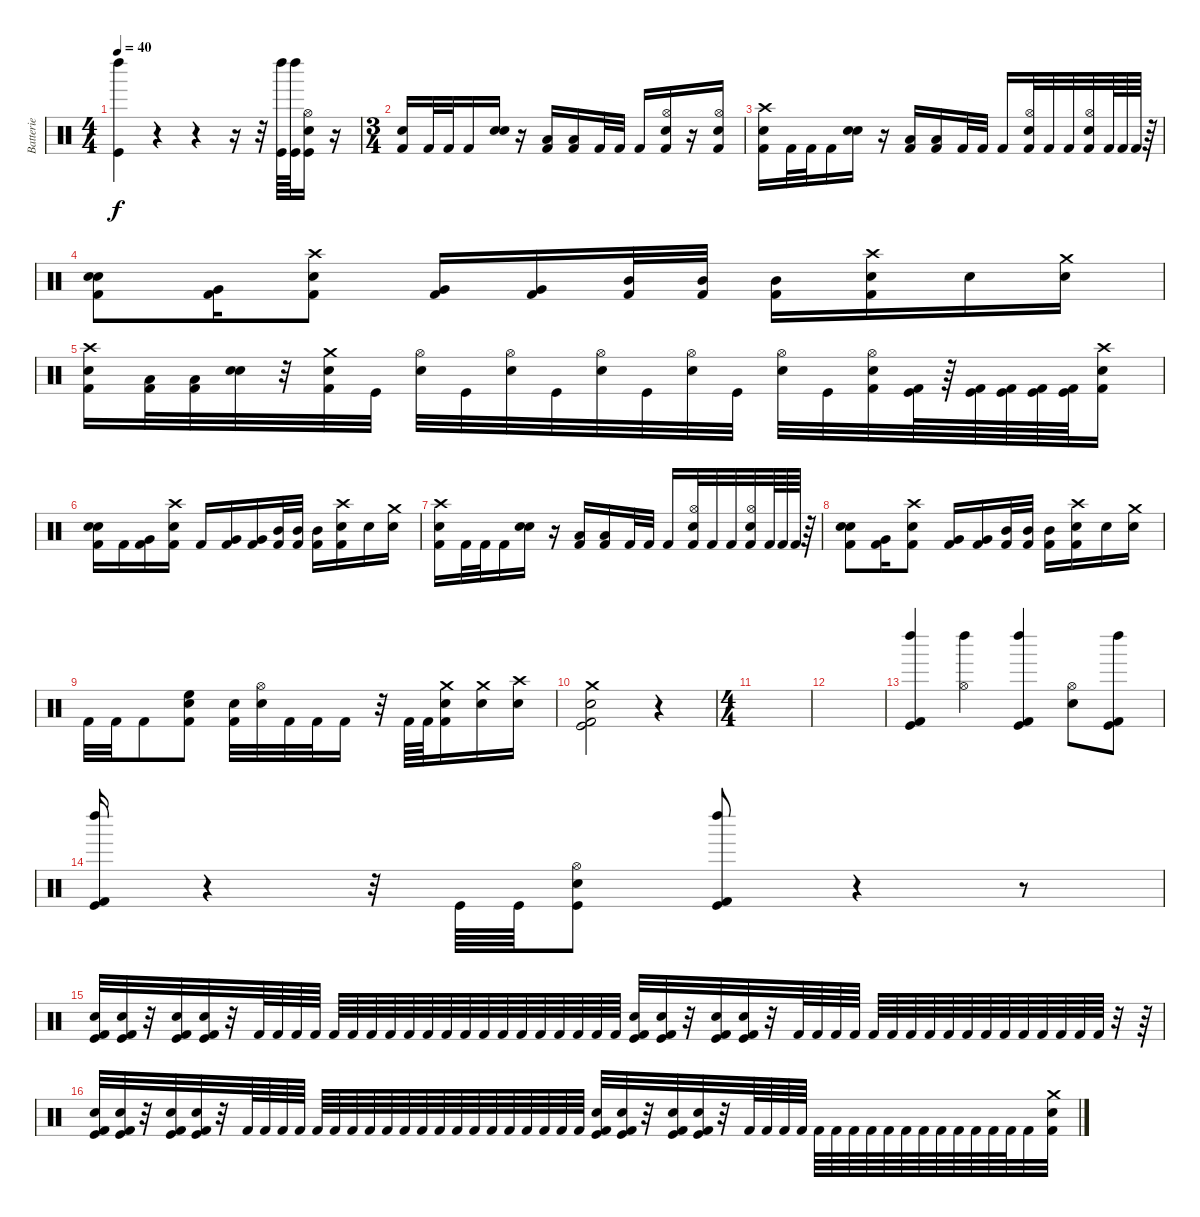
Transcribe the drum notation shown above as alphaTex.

\track ("Batterie" "Batterie") {instrument percussion}
\staff {score}
\articulation defaults
\ts (4 4)
\tempo 40
\clef neutral
\ks c
("Kick (hit)" "Left Maraca (hit)").4{dy f} r.4 r.4 r.16 r.32 ("Kick (hit)" "Left Maraca (hit)").64 ("Kick (hit)" "Left Maraca (hit)").64 ("Kick (hit)" "Electric Snare (hit)" "Hi-Hat (open)").16 r.16 |
\ts (3 4)
("Kick (hit) 2" "Electric Snare (hit)").16 "Kick (hit) 2".32 "Kick (hit) 2".32 "Kick (hit) 2".16 ("Snare (hit) 2" "Electric Snare (hit)").16 r.16 ("Kick (hit) 2" "Low Floor Tom (hit)").16 ("Kick (hit) 2" "Low Floor Tom (hit)").16 "Kick (hit) 2".32 "Kick (hit) 2".32 "Kick (hit) 2".16 ("Kick (hit) 2" "Electric Snare (hit)" "Hi-Hat (open)").16 r.16 ("Kick (hit) 2" "Electric Snare (hit)" "Hi-Hat (open)").16 |
("Kick (hit) 2" "Electric Snare (hit)" "Crash high (hit)").16 "Kick (hit) 2".32 "Kick (hit) 2".32 "Kick (hit) 2".16 ("Snare (hit) 2" "Electric Snare (hit)").16 r.16 ("Kick (hit) 2" "Low Floor Tom (hit)").16 ("Kick (hit) 2" "Low Floor Tom (hit)").16 "Kick (hit) 2".32 "Kick (hit) 2".32 "Kick (hit) 2".16 ("Kick (hit) 2" "Electric Snare (hit)" "Hi-Hat (open)").32 "Kick (hit) 2".32 "Kick (hit) 2".32 ("Kick (hit) 2" "Electric Snare (hit)" "Hi-Hat (open)").32 "Kick (hit) 2".64 "Kick (hit) 2".64 "Kick (hit) 2".64 r.64 |
("Kick (hit) 2" "Snare (hit) 2" "Electric Snare (hit)").8 ("Kick (hit) 2" "Very Low Tom (hit)").16 ("Kick (hit) 2" "Electric Snare (hit)" "Crash high (hit)").8 ("Kick (hit) 2" "Very Low Tom (hit)").16 ("Kick (hit) 2" "Very Low Tom (hit)").16 ("Kick (hit) 2" "Mid Tom (hit)").32 ("Kick (hit) 2" "Mid Tom (hit)").32 ("Kick (hit) 2" "Mid Tom (hit)").16 ("Kick (hit) 2" "Electric Snare (hit)" "Crash high (hit)").16 "Electric Snare (hit)".16 ("Electric Snare (hit)" "Crash medium (hit)").16 |
("Kick (hit) 2" "Electric Snare (hit)" "Crash high (hit)").16 ("Kick (hit) 2" "Low Floor Tom (hit)").32 ("Kick (hit) 2" "Low Floor Tom (hit)").32 ("Electric Snare (hit)" "Electric Snare (hit)").32 r.32 ("Kick (hit) 2" "Electric Snare (hit)" "Crash medium (hit)").32 "Kick (hit)".32 ("Electric Snare (hit)" "Hi-Hat (open)").32 "Kick (hit)".32 ("Electric Snare (hit)" "Hi-Hat (open)").32 "Kick (hit)".32 ("Electric Snare (hit)" "Hi-Hat (open)").32 "Kick (hit)".32 ("Electric Snare (hit)" "Hi-Hat (open)").32 "Kick (hit)".32 ("Electric Snare (hit)" "Hi-Hat (open)").32 "Kick (hit)".32 ("Kick (hit) 2" "Electric Snare (hit)" "Hi-Hat (open)").32 ("Kick (hit) 2" "Kick (hit)").64 r.64 ("Kick (hit) 2" "Kick (hit)").64 ("Kick (hit) 2" "Kick (hit)").64 ("Kick (hit) 2" "Kick (hit)").64 ("Kick (hit) 2" "Kick (hit)").64 ("Kick (hit) 2" "Electric Snare (hit)" "Crash high (hit)").16 |
("Kick (hit) 2" "Snare (hit) 2" "Electric Snare (hit)").16 "Kick (hit) 2".16 ("Kick (hit) 2" "Very Low Tom (hit)").16 ("Kick (hit) 2" "Electric Snare (hit)" "Crash high (hit)").16 "Kick (hit) 2".16 ("Kick (hit) 2" "Very Low Tom (hit)").16 ("Kick (hit) 2" "Very Low Tom (hit)").16 ("Kick (hit) 2" "Mid Tom (hit)").32 ("Kick (hit) 2" "Mid Tom (hit)").32 ("Kick (hit) 2" "Mid Tom (hit)").16 ("Kick (hit) 2" "Electric Snare (hit)" "Crash high (hit)").16 "Electric Snare (hit)".16 ("Electric Snare (hit)" "Crash medium (hit)").16 |
("Kick (hit) 2" "Electric Snare (hit)" "Crash high (hit)").16 "Kick (hit) 2".32 "Kick (hit) 2".32 "Kick (hit) 2".16 ("Snare (hit) 2" "Electric Snare (hit)").16 r.16 ("Kick (hit) 2" "Low Floor Tom (hit)").16 ("Kick (hit) 2" "Low Floor Tom (hit)").16 "Kick (hit) 2".32 "Kick (hit) 2".32 "Kick (hit) 2".16 ("Kick (hit) 2" "Electric Snare (hit)" "Hi-Hat (open)").32 "Kick (hit) 2".32 "Kick (hit) 2".32 ("Kick (hit) 2" "Electric Snare (hit)" "Hi-Hat (open)").32 "Kick (hit) 2".64 "Kick (hit) 2".64 "Kick (hit) 2".64 r.64 |
("Kick (hit) 2" "Snare (hit) 2" "Electric Snare (hit)").8 ("Kick (hit) 2" "Very Low Tom (hit)").16 ("Kick (hit) 2" "Electric Snare (hit)" "Crash high (hit)").8 ("Kick (hit) 2" "Very Low Tom (hit)").16 ("Kick (hit) 2" "Very Low Tom (hit)").16 ("Kick (hit) 2" "Mid Tom (hit)").32 ("Kick (hit) 2" "Mid Tom (hit)").32 ("Kick (hit) 2" "Mid Tom (hit)").16 ("Kick (hit) 2" "Electric Snare (hit)" "Crash high (hit)").16 "Electric Snare (hit)".16 ("Electric Snare (hit)" "Crash medium (hit)").16 |
"Kick (hit) 2".32 "Kick (hit) 2".32 "Kick (hit) 2".8 ("Kick (hit) 2" "High Floor Tom (hit)" "Electric Snare (hit)").8 ("Kick (hit) 2" "Electric Snare (hit)").32 ("Hi-Hat (open)" "Electric Snare (hit)").32 "Kick (hit) 2".32 "Kick (hit) 2".32 "Kick (hit) 2".16 r.32 "Kick (hit) 2".64 "Kick (hit) 2".64 ("Kick (hit) 2" "Electric Snare (hit)" "Crash medium (hit)").16 ("Electric Snare (hit)" "Crash medium (hit)").16 ("Electric Snare (hit)" "Crash high (hit)").16 |
("Kick (hit)" "Kick (hit) 2" "Electric Snare (hit)" "Crash medium (hit)").2 r.4 |
\ts (4 4)
|
|
("Kick (hit)" "Kick (hit) 2" "Left Maraca (hit)").4 ("Hi-Hat (open)" "Left Maraca (hit)").4 ("Kick (hit)" "Kick (hit) 2" "Left Maraca (hit)").4 ("Electric Snare (hit)" "Hi-Hat (open)").8 ("Kick (hit)" "Kick (hit) 2" "Left Maraca (hit)").8 |
("Kick (hit)" "Kick (hit) 2" "Left Maraca (hit)").16 r.4 r.32 "Kick (hit)".64 "Kick (hit)".64 ("Kick (hit)" "Electric Snare (hit)" "Hi-Hat (open)").8 ("Kick (hit)" "Kick (hit) 2" "Left Maraca (hit)").8 r.4 r.8 |
("Kick (hit)" "Kick (hit) 2" "Electric Snare (hit)").32 ("Kick (hit)" "Kick (hit) 2" "Electric Snare (hit)").32 r.32 ("Kick (hit)" "Kick (hit) 2" "Electric Snare (hit)").32 ("Kick (hit)" "Kick (hit) 2" "Electric Snare (hit)").32 r.32 "Kick (hit) 2".64 "Kick (hit) 2".64 "Kick (hit) 2".64 "Kick (hit) 2".64 "Kick (hit) 2".64 "Kick (hit) 2".64 "Kick (hit) 2".64 "Kick (hit) 2".64 "Kick (hit) 2".64 "Kick (hit) 2".64 "Kick (hit) 2".64 "Kick (hit) 2".64 "Kick (hit) 2".64 "Kick (hit) 2".64 "Kick (hit) 2".64 "Kick (hit) 2".64 "Kick (hit) 2".64 "Kick (hit) 2".64 "Kick (hit) 2".64 "Kick (hit) 2".64 ("Kick (hit)" "Kick (hit) 2" "Electric Snare (hit)").32 ("Kick (hit)" "Kick (hit) 2" "Electric Snare (hit)").32 r.32 ("Kick (hit)" "Kick (hit) 2" "Electric Snare (hit)").32 ("Kick (hit)" "Kick (hit) 2" "Electric Snare (hit)").32 r.32 "Kick (hit) 2".64 "Kick (hit) 2".64 "Kick (hit) 2".64 "Kick (hit) 2".64 "Kick (hit) 2".64 "Kick (hit) 2".64 "Kick (hit) 2".64 "Kick (hit) 2".64 "Kick (hit) 2".64 "Kick (hit) 2".64 "Kick (hit) 2".64 "Kick (hit) 2".64 "Kick (hit) 2".64 "Kick (hit) 2".64 "Kick (hit) 2".64 "Kick (hit) 2".64 "Kick (hit) 2".64 r.32 r.64 |
("Kick (hit)" "Kick (hit) 2" "Electric Snare (hit)").32 ("Kick (hit)" "Kick (hit) 2" "Electric Snare (hit)").32 r.32 ("Kick (hit)" "Kick (hit) 2" "Electric Snare (hit)").32 ("Kick (hit)" "Kick (hit) 2" "Electric Snare (hit)").32 r.32 "Kick (hit) 2".64 "Kick (hit) 2".64 "Kick (hit) 2".64 "Kick (hit) 2".64 "Kick (hit) 2".64 "Kick (hit) 2".64 "Kick (hit) 2".64 "Kick (hit) 2".64 "Kick (hit) 2".64 "Kick (hit) 2".64 "Kick (hit) 2".64 "Kick (hit) 2".64 "Kick (hit) 2".64 "Kick (hit) 2".64 "Kick (hit) 2".64 "Kick (hit) 2".64 "Kick (hit) 2".64 "Kick (hit) 2".64 "Kick (hit) 2".64 "Kick (hit) 2".64 ("Kick (hit)" "Kick (hit) 2" "Electric Snare (hit)").32 ("Kick (hit)" "Kick (hit) 2" "Electric Snare (hit)").32 r.32 ("Kick (hit)" "Kick (hit) 2" "Electric Snare (hit)").32 ("Kick (hit)" "Kick (hit) 2" "Electric Snare (hit)").32 r.32 "Kick (hit) 2".64 "Kick (hit) 2".64 "Kick (hit) 2".64 "Kick (hit) 2".64 "Kick (hit) 2".64 "Kick (hit) 2".64 "Kick (hit) 2".64 "Kick (hit) 2".64 "Kick (hit) 2".64 "Kick (hit) 2".64 "Kick (hit) 2".64 "Kick (hit) 2".64 "Kick (hit) 2".64 "Kick (hit) 2".64 "Kick (hit) 2".64 "Kick (hit) 2".64 "Kick (hit) 2".32 ("Kick (hit) 2" "Electric Snare (hit)" "Crash medium (hit)").32
